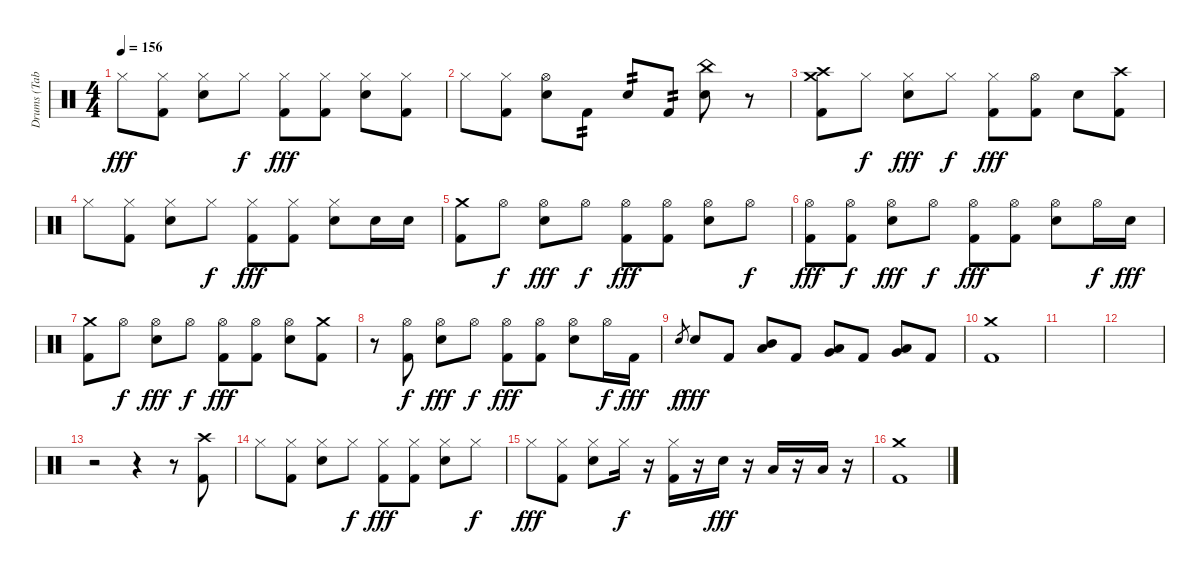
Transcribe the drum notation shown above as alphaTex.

\track ("Drums (Tab By Drumminger)" "Drums (Tab") {instrument percussion}
\staff {score}
\articulation defaults
\ts (4 4)
\tempo 156
\clef neutral
\ks c "Hi-Hat (closed)".8{dy fff}
("Hi-Hat (closed)" "Kick (hit) 2").8 ("Hi-Hat (closed)" "Snare (hit) 2").8 "Hi-Hat (closed)".8{dy f} ("Hi-Hat (closed)" "Kick (hit) 2").8{dy fff} ("Hi-Hat (closed)" "Kick (hit) 2").8 ("Hi-Hat (closed)" "Snare (hit) 2").8 ("Hi-Hat (closed)" "Kick (hit) 2").8 |
"Hi-Hat (closed)".8 ("Hi-Hat (closed)" "Kick (hit) 2").8 ("Hi-Hat (open)" "Snare (hit) 2").8 "Kick (hit) 2".8{tp 2} "Snare (hit) 2".8{tp 2} "Kick (hit) 2".8{tp 2} ("China (hit)" "Snare (hit) 2").8 r.8 |
("Crash medium (hit)" "Crash high (hit)" "Kick (hit) 2").8 "Hi-Hat (closed)".8{dy f} ("Hi-Hat (closed)" "Snare (hit) 2").8{dy fff} "Hi-Hat (closed)".8{dy f} ("Hi-Hat (closed)" "Kick (hit) 2").8{dy fff} ("Hi-Hat (open)" "Kick (hit) 2").8 "Snare (hit) 2".8 ("Crash high (hit)" "Kick (hit) 2").8 |
"Hi-Hat (closed)".8 ("Hi-Hat (closed)" "Kick (hit) 2").8 ("Hi-Hat (closed)" "Snare (hit) 2").8 "Hi-Hat (closed)".8{dy f} ("Hi-Hat (closed)" "Kick (hit) 2").8{dy fff} ("Hi-Hat (closed)" "Kick (hit) 2").8 ("Hi-Hat (closed)" "Snare (hit) 2").8 "Snare (hit) 2".16 "Snare (hit) 2".16 |
("Crash medium (hit)" "Kick (hit) 2").8 "Hi-Hat (open)".8{dy f} ("Hi-Hat (open)" "Snare (hit) 2").8{dy fff} "Hi-Hat (open)".8{dy f} ("Hi-Hat (open)" "Kick (hit) 2").8{dy fff} ("Hi-Hat (open)" "Kick (hit) 2").8 ("Hi-Hat (open)" "Snare (hit) 2").8 "Hi-Hat (open)".8{dy f} |
("Hi-Hat (open)" "Kick (hit) 2").8{dy fff} ("Hi-Hat (open)" "Kick (hit) 2").8{dy f} ("Hi-Hat (open)" "Snare (hit) 2").8{dy fff} "Hi-Hat (open)".8{dy f} ("Hi-Hat (open)" "Kick (hit) 2").8{dy fff} ("Hi-Hat (open)" "Kick (hit) 2").8 ("Hi-Hat (open)" "Snare (hit) 2").8 "Hi-Hat (open)".16{dy f} "Snare (hit) 2".16{dy fff} |
("Crash medium (hit)" "Kick (hit) 2").8 "Hi-Hat (open)".8{dy f} ("Hi-Hat (open)" "Snare (hit) 2").8{dy fff} "Hi-Hat (open)".8{dy f} ("Hi-Hat (open)" "Kick (hit) 2").8{dy fff} ("Hi-Hat (open)" "Kick (hit) 2").8 ("Hi-Hat (open)" "Snare (hit) 2").8 ("Crash medium (hit)" "Kick (hit) 2").8 |
r.8 ("Hi-Hat (open)" "Kick (hit) 2").8{dy f} ("Hi-Hat (open)" "Snare (hit) 2").8{dy fff} "Hi-Hat (open)".8{dy f} ("Hi-Hat (open)" "Kick (hit) 2").8{dy fff} ("Hi-Hat (open)" "Kick (hit) 2").8 ("Hi-Hat (open)" "Snare (hit) 2").8 "Hi-Hat (open)".16{dy f} "Kick (hit) 2".16{dy fff} |
"Snare (hit) 2".8{gr dy f} "Snare (hit) 2".8{dy fff} "Kick (hit) 2".8 ("Mid Tom (hit)" "Low Tom (hit)").8 "Kick (hit) 2".8 ("Low Tom (hit)" "Very Low Tom (hit)").8 "Kick (hit) 2".8 ("Very Low Tom (hit)" "Low Floor Tom (hit)").8 "Kick (hit) 2".8 |
("Crash medium (hit)" "Kick (hit) 2").1 |
|
|
r.2 r.4 r.8 ("Crash high (hit)" "Kick (hit) 2").8 |
"Hi-Hat (closed)".8 ("Hi-Hat (closed)" "Kick (hit) 2").8 ("Hi-Hat (closed)" "Snare (hit) 2").8 "Hi-Hat (closed)".8{dy f} ("Hi-Hat (closed)" "Kick (hit) 2").8{dy fff} ("Hi-Hat (closed)" "Kick (hit) 2").8 ("Hi-Hat (closed)" "Snare (hit) 2").8 "Hi-Hat (closed)".8{dy f} |
"Hi-Hat (closed)".8{dy fff} ("Hi-Hat (closed)" "Kick (hit) 2").8 ("Hi-Hat (closed)" "Snare (hit) 2").8 "Hi-Hat (closed)".16{dy f} r.16 ("Hi-Hat (closed)" "Kick (hit) 2").16 r.16 "Snare (hit) 2".16{dy fff} r.16 "Low Tom (hit)".16 r.16 "Low Tom (hit)".16 r.16 |
("Crash medium (hit)" "Kick (hit) 2").1
